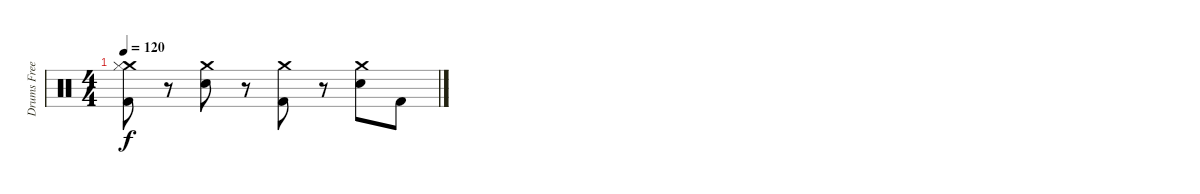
\track ("Drums Freese" "Drums Free") {instrument percussion}
\staff {score}
\articulation defaults
\ts (4 4)
\tempo 120
\clef neutral
\ks c
("Crash medium (hit)" "Hi-Hat (closed)" "Kick (hit) 2").8{dy f volume 4} r.8 ("Crash medium (hit)" "Snare (hit) 2").8 r.8 ("Crash medium (hit)" "Kick (hit) 2").8{volume 2} r.8 ("Crash medium (hit)" "Snare (hit) 2").8 "Kick (hit) 2".8{volume 0}
